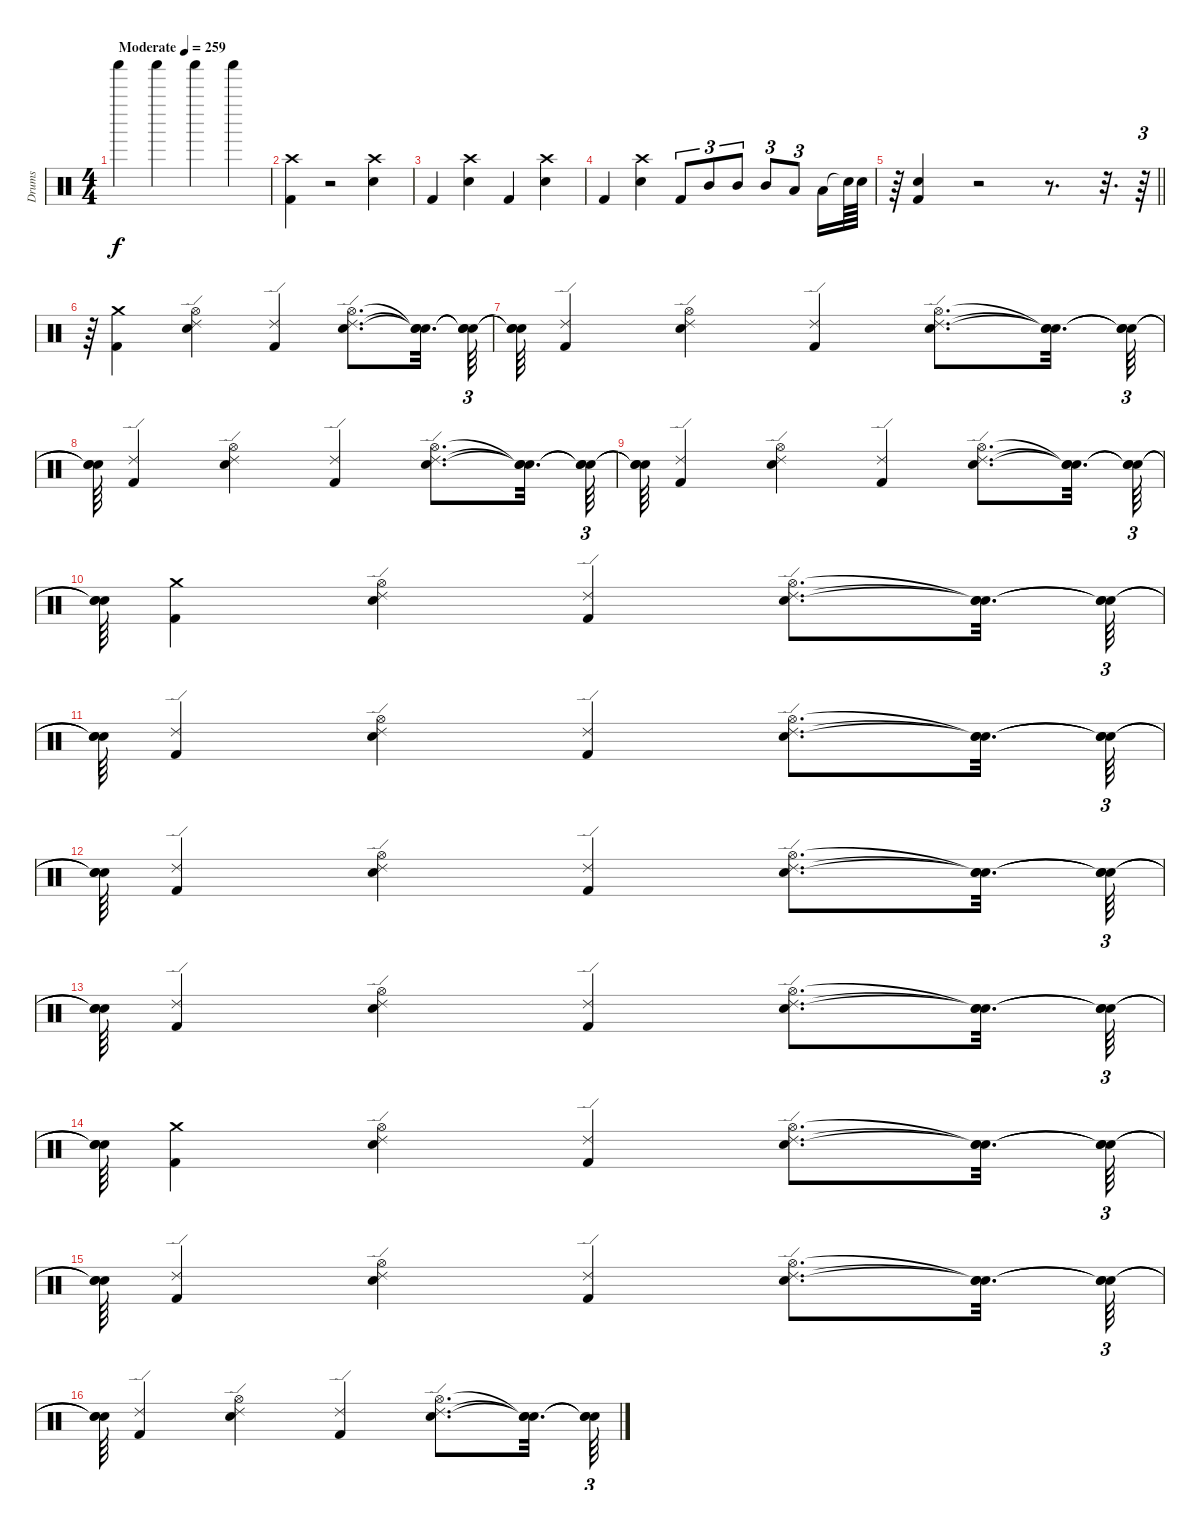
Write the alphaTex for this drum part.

\track ("Drums" "Drums") {instrument percussion}
\staff {score}
\articulation defaults
\ts (4 4)
\section ("" "")
\tempo (259 "Moderate")
\clef neutral
\ks c "Shaker (hit)".4{dy f} "Shaker (hit)".4 "Shaker (hit)".4 "Shaker (hit)".4
|
("Kick (hit) 2" "Crash high (hit)").4 r.2 ("Electric Snare (hit)" "Crash high (hit)").4 |
"Kick (hit) 2".4 ("Electric Snare (hit)" "Crash high (hit)").4 "Kick (hit) 2".4 ("Electric Snare (hit)" "Crash high (hit)").4 |
"Kick (hit) 2".4 ("Electric Snare (hit)" "Crash high (hit)").4 "Kick (hit) 2".8{tu (3 2)} "Mid Tom (hit)".8{tu (3 2)} "Mid Tom (hit)".8{tu (3 2)} "Mid Tom (hit)".8{tu (3 2)} "Low Tom (hit)".8{tu (3 2)} "Low Tom (hit)".16 "Snare (hit)"{t}.64 "Electric Snare (hit)".64 |
\barLineRight lightlight
r.64 ("Kick (hit) 2" "Electric Snare (hit)").4 r.2 r.8{d} r.32{d} r.64{tu (3 2)} |
r.64 ("Kick (hit) 2" "Crash medium (hit)").4 ("Electric Snare (hit)" "Ride (edge) 2" "Hi-Hat (open)").4 ("Kick (hit) 2" "Ride (edge) 2").4 ("Electric Snare (hit)" "Ride (edge) 2" "Hi-Hat (open)").8{d} ("Snare (hit)"{t} "Snare (hit)"{t} "Snare (hit)"{t}).32{d} ("Snare (hit)"{t} "Snare (hit)"{t} "Snare (hit)"{t}).64{tu (3 2)} |
("Snare (hit)"{t} "Snare (hit)"{t} "Snare (hit)"{t}).64 ("Kick (hit) 2" "Ride (edge) 2").4 ("Electric Snare (hit)" "Ride (edge) 2" "Hi-Hat (open)").4 ("Kick (hit) 2" "Ride (edge) 2").4 ("Electric Snare (hit)" "Ride (edge) 2" "Hi-Hat (open)").8{d} ("Snare (hit)"{t} "Snare (hit)"{t} "Snare (hit)"{t}).32{d} ("Snare (hit)"{t} "Snare (hit)"{t} "Snare (hit)"{t}).64{tu (3 2)} |
("Snare (hit)"{t} "Snare (hit)"{t} "Snare (hit)"{t}).64 ("Kick (hit) 2" "Ride (edge) 2").4 ("Electric Snare (hit)" "Ride (edge) 2" "Hi-Hat (open)").4 ("Kick (hit) 2" "Ride (edge) 2").4 ("Electric Snare (hit)" "Ride (edge) 2" "Hi-Hat (open)").8{d} ("Snare (hit)"{t} "Snare (hit)"{t} "Snare (hit)"{t}).32{d} ("Snare (hit)"{t} "Snare (hit)"{t} "Snare (hit)"{t}).64{tu (3 2)} |
("Snare (hit)"{t} "Snare (hit)"{t} "Snare (hit)"{t}).64 ("Kick (hit) 2" "Ride (edge) 2").4 ("Electric Snare (hit)" "Ride (edge) 2" "Hi-Hat (open)").4 ("Kick (hit) 2" "Ride (edge) 2").4 ("Electric Snare (hit)" "Ride (edge) 2" "Hi-Hat (open)").8{d} ("Snare (hit)"{t} "Snare (hit)"{t} "Snare (hit)"{t}).32{d} ("Snare (hit)"{t} "Snare (hit)"{t} "Snare (hit)"{t}).64{tu (3 2)} |
("Snare (hit)"{t} "Snare (hit)"{t} "Snare (hit)"{t}).64 ("Kick (hit) 2" "Crash medium (hit)").4 ("Electric Snare (hit)" "Ride (edge) 2" "Hi-Hat (open)").4 ("Kick (hit) 2" "Ride (edge) 2").4 ("Electric Snare (hit)" "Ride (edge) 2" "Hi-Hat (open)").8{d} ("Snare (hit)"{t} "Snare (hit)"{t} "Snare (hit)"{t}).32{d} ("Snare (hit)"{t} "Snare (hit)"{t} "Snare (hit)"{t}).64{tu (3 2)} |
("Snare (hit)"{t} "Snare (hit)"{t} "Snare (hit)"{t}).64 ("Kick (hit) 2" "Ride (edge) 2").4 ("Electric Snare (hit)" "Ride (edge) 2" "Hi-Hat (open)").4 ("Kick (hit) 2" "Ride (edge) 2").4 ("Electric Snare (hit)" "Ride (edge) 2" "Hi-Hat (open)").8{d} ("Snare (hit)"{t} "Snare (hit)"{t} "Snare (hit)"{t}).32{d} ("Snare (hit)"{t} "Snare (hit)"{t} "Snare (hit)"{t}).64{tu (3 2)} |
("Snare (hit)"{t} "Snare (hit)"{t} "Snare (hit)"{t}).64 ("Kick (hit) 2" "Ride (edge) 2").4 ("Electric Snare (hit)" "Ride (edge) 2" "Hi-Hat (open)").4 ("Kick (hit) 2" "Ride (edge) 2").4 ("Electric Snare (hit)" "Ride (edge) 2" "Hi-Hat (open)").8{d} ("Snare (hit)"{t} "Snare (hit)"{t} "Snare (hit)"{t}).32{d} ("Snare (hit)"{t} "Snare (hit)"{t} "Snare (hit)"{t}).64{tu (3 2)} |
("Snare (hit)"{t} "Snare (hit)"{t} "Snare (hit)"{t}).64 ("Kick (hit) 2" "Ride (edge) 2").4 ("Electric Snare (hit)" "Ride (edge) 2" "Hi-Hat (open)").4 ("Kick (hit) 2" "Ride (edge) 2").4 ("Electric Snare (hit)" "Ride (edge) 2" "Hi-Hat (open)").8{d} ("Snare (hit)"{t} "Snare (hit)"{t} "Snare (hit)"{t}).32{d} ("Snare (hit)"{t} "Snare (hit)"{t} "Snare (hit)"{t}).64{tu (3 2)} |
("Snare (hit)"{t} "Snare (hit)"{t} "Snare (hit)"{t}).64 ("Kick (hit) 2" "Crash medium (hit)").4 ("Electric Snare (hit)" "Ride (edge) 2" "Hi-Hat (open)").4 ("Kick (hit) 2" "Ride (edge) 2").4 ("Electric Snare (hit)" "Ride (edge) 2" "Hi-Hat (open)").8{d} ("Snare (hit)"{t} "Snare (hit)"{t} "Snare (hit)"{t}).32{d} ("Snare (hit)"{t} "Snare (hit)"{t} "Snare (hit)"{t}).64{tu (3 2)} |
("Snare (hit)"{t} "Snare (hit)"{t} "Snare (hit)"{t}).64 ("Kick (hit) 2" "Ride (edge) 2").4 ("Electric Snare (hit)" "Ride (edge) 2" "Hi-Hat (open)").4 ("Kick (hit) 2" "Ride (edge) 2").4 ("Electric Snare (hit)" "Ride (edge) 2" "Hi-Hat (open)").8{d} ("Snare (hit)"{t} "Snare (hit)"{t} "Snare (hit)"{t}).32{d} ("Snare (hit)"{t} "Snare (hit)"{t} "Snare (hit)"{t}).64{tu (3 2)} |
("Snare (hit)"{t} "Snare (hit)"{t} "Snare (hit)"{t}).64 ("Kick (hit) 2" "Ride (edge) 2").4 ("Electric Snare (hit)" "Ride (edge) 2" "Hi-Hat (open)").4 ("Kick (hit) 2" "Ride (edge) 2").4 ("Electric Snare (hit)" "Ride (edge) 2" "Hi-Hat (open)").8{d} ("Snare (hit)"{t} "Snare (hit)"{t} "Snare (hit)"{t}).32{d} ("Snare (hit)"{t} "Snare (hit)"{t} "Snare (hit)"{t}).64{tu (3 2)}
